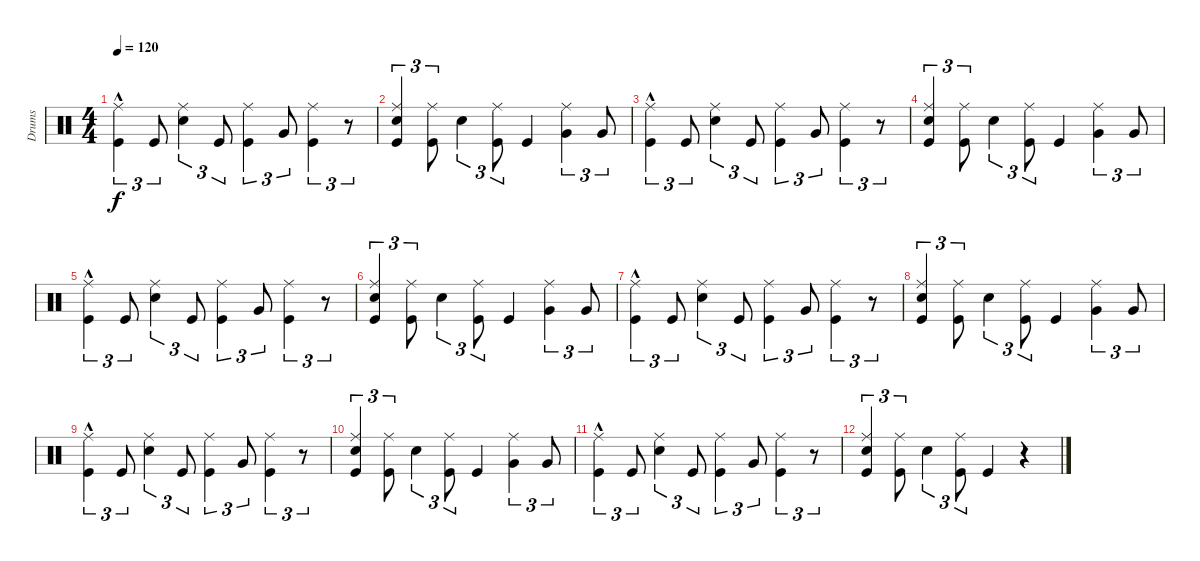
\track ("Drums" "Drums") {instrument percussion}
\staff {score}
\articulation defaults
\ts (4 4)
\tempo 120
\clef neutral
\ks c
("Kick (hit)"{hac} "Ride (middle)").4{tu (3 2) dy f} "Kick (hit)".8{tu (3 2)} ("Snare (hit) 2" "Ride (middle)").4{tu (3 2)} "Kick (hit)".8{tu (3 2)} ("Kick (hit)" "Ride (middle)").4{tu (3 2)} "Very Low Tom (hit)".8{tu (3 2)} ("Kick (hit)" "Ride (middle)").4{tu (3 2)} r.8{tu (3 2)} |
("Kick (hit)" "Snare (hit) 2" "Ride (middle)").4{tu (3 2)} ("Kick (hit)" "Ride (middle)").8{tu (3 2)} "Snare (hit) 2".4{tu (3 2)} ("Kick (hit)" "Ride (middle)").8{tu (3 2)} "Kick (hit)".4 ("Very Low Tom (hit)" "Ride (middle)").4{tu (3 2)} "Very Low Tom (hit)".8{tu (3 2)} |
("Kick (hit)"{hac} "Ride (middle)").4{tu (3 2)} "Kick (hit)".8{tu (3 2)} ("Snare (hit) 2" "Ride (middle)").4{tu (3 2)} "Kick (hit)".8{tu (3 2)} ("Kick (hit)" "Ride (middle)").4{tu (3 2)} "Very Low Tom (hit)".8{tu (3 2)} ("Kick (hit)" "Ride (middle)").4{tu (3 2)} r.8{tu (3 2)} |
("Kick (hit)" "Snare (hit) 2" "Ride (middle)").4{tu (3 2)} ("Kick (hit)" "Ride (middle)").8{tu (3 2)} "Snare (hit) 2".4{tu (3 2)} ("Kick (hit)" "Ride (middle)").8{tu (3 2)} "Kick (hit)".4 ("Very Low Tom (hit)" "Ride (middle)").4{tu (3 2)} "Very Low Tom (hit)".8{tu (3 2)} |
("Kick (hit)"{hac} "Ride (middle)").4{tu (3 2)} "Kick (hit)".8{tu (3 2)} ("Snare (hit) 2" "Ride (middle)").4{tu (3 2)} "Kick (hit)".8{tu (3 2)} ("Kick (hit)" "Ride (middle)").4{tu (3 2)} "Very Low Tom (hit)".8{tu (3 2)} ("Kick (hit)" "Ride (middle)").4{tu (3 2)} r.8{tu (3 2)} |
("Kick (hit)" "Snare (hit) 2" "Ride (middle)").4{tu (3 2)} ("Kick (hit)" "Ride (middle)").8{tu (3 2)} "Snare (hit) 2".4{tu (3 2)} ("Kick (hit)" "Ride (middle)").8{tu (3 2)} "Kick (hit)".4 ("Very Low Tom (hit)" "Ride (middle)").4{tu (3 2)} "Very Low Tom (hit)".8{tu (3 2)} |
("Kick (hit)"{hac} "Ride (middle)").4{tu (3 2)} "Kick (hit)".8{tu (3 2)} ("Snare (hit) 2" "Ride (middle)").4{tu (3 2)} "Kick (hit)".8{tu (3 2)} ("Kick (hit)" "Ride (middle)").4{tu (3 2)} "Very Low Tom (hit)".8{tu (3 2)} ("Kick (hit)" "Ride (middle)").4{tu (3 2)} r.8{tu (3 2)} |
("Kick (hit)" "Snare (hit) 2" "Ride (middle)").4{tu (3 2)} ("Kick (hit)" "Ride (middle)").8{tu (3 2)} "Snare (hit) 2".4{tu (3 2)} ("Kick (hit)" "Ride (middle)").8{tu (3 2)} "Kick (hit)".4 ("Very Low Tom (hit)" "Ride (middle)").4{tu (3 2)} "Very Low Tom (hit)".8{tu (3 2)} |
("Kick (hit)"{hac} "Ride (middle)").4{tu (3 2)} "Kick (hit)".8{tu (3 2)} ("Snare (hit) 2" "Ride (middle)").4{tu (3 2)} "Kick (hit)".8{tu (3 2)} ("Kick (hit)" "Ride (middle)").4{tu (3 2)} "Very Low Tom (hit)".8{tu (3 2)} ("Kick (hit)" "Ride (middle)").4{tu (3 2)} r.8{tu (3 2)} |
("Kick (hit)" "Snare (hit) 2" "Ride (middle)").4{tu (3 2)} ("Kick (hit)" "Ride (middle)").8{tu (3 2)} "Snare (hit) 2".4{tu (3 2)} ("Kick (hit)" "Ride (middle)").8{tu (3 2)} "Kick (hit)".4 ("Very Low Tom (hit)" "Ride (middle)").4{tu (3 2)} "Very Low Tom (hit)".8{tu (3 2)} |
("Kick (hit)"{hac} "Ride (middle)").4{tu (3 2)} "Kick (hit)".8{tu (3 2)} ("Snare (hit) 2" "Ride (middle)").4{tu (3 2)} "Kick (hit)".8{tu (3 2)} ("Kick (hit)" "Ride (middle)").4{tu (3 2)} "Very Low Tom (hit)".8{tu (3 2)} ("Kick (hit)" "Ride (middle)").4{tu (3 2)} r.8{tu (3 2)} |
("Kick (hit)" "Snare (hit) 2" "Ride (middle)").4{tu (3 2)} ("Kick (hit)" "Ride (middle)").8{tu (3 2)} "Snare (hit) 2".4{tu (3 2)} ("Kick (hit)" "Ride (middle)").8{tu (3 2)} "Kick (hit)".4 r.4
